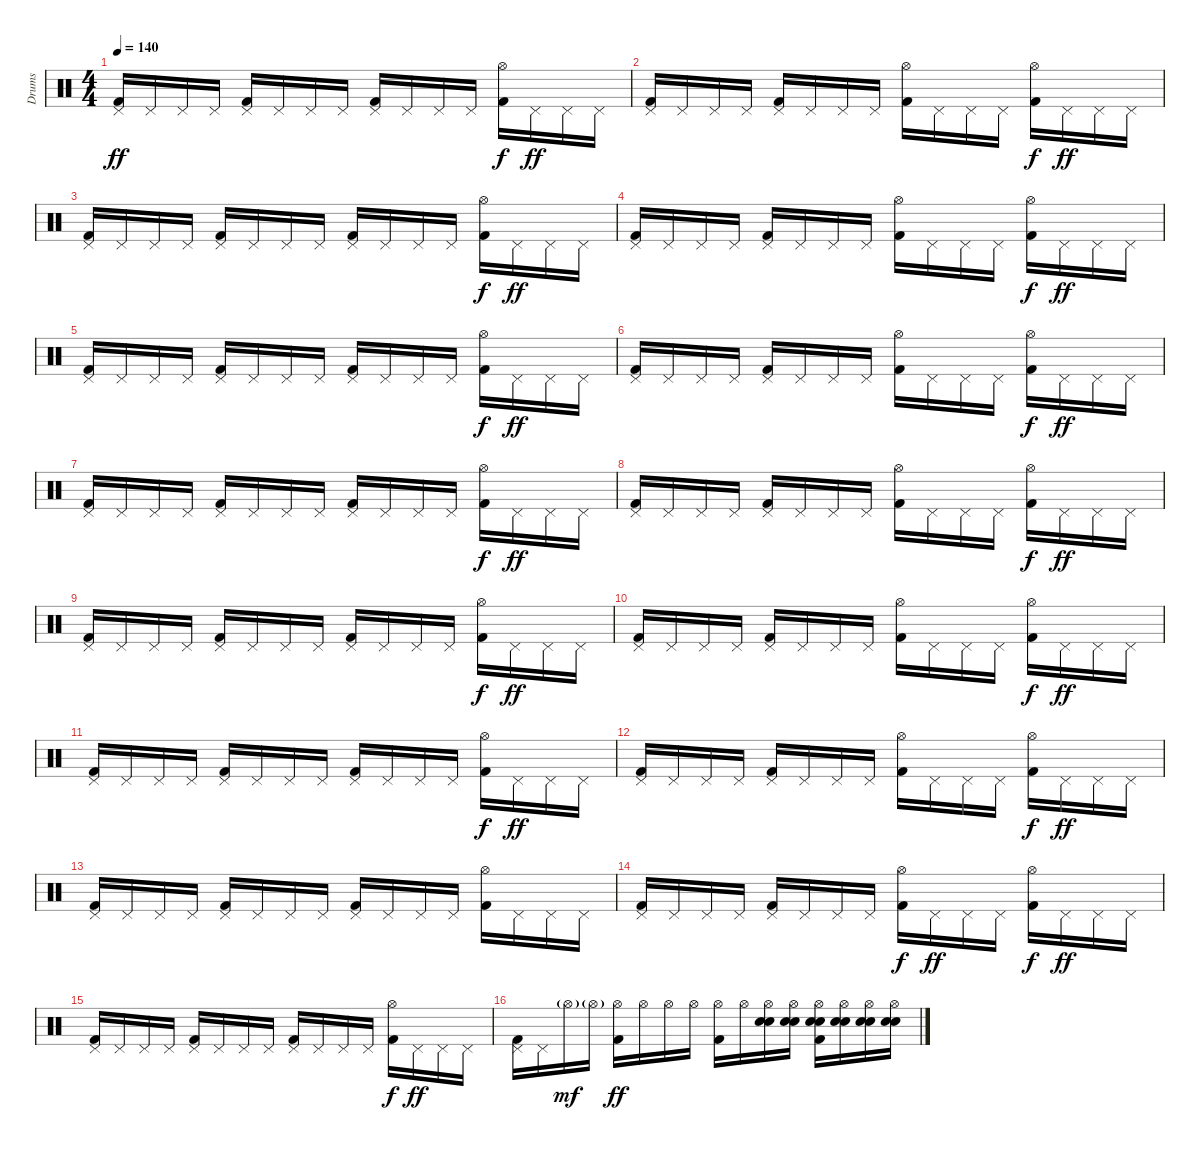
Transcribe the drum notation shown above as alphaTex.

\track ("Drums" "Drums") {instrument percussion}
\staff {score}
\articulation defaults
\ts (4 4)
\tempo 140
\clef neutral
\ks c
("Pedal Hi-Hat (hit)" "Kick (hit) 2").16{dy ff} "Pedal Hi-Hat (hit)".16 "Pedal Hi-Hat (hit)".16 "Pedal Hi-Hat (hit)".16 ("Pedal Hi-Hat (hit)" "Kick (hit) 2").16 "Pedal Hi-Hat (hit)".16 "Pedal Hi-Hat (hit)".16 "Pedal Hi-Hat (hit)".16 ("Pedal Hi-Hat (hit)" "Kick (hit) 2").16 "Pedal Hi-Hat (hit)".16 "Pedal Hi-Hat (hit)".16 "Pedal Hi-Hat (hit)".16 ("Hi-Hat (open)" "Kick (hit) 2").16{dy f} "Pedal Hi-Hat (hit)".16{dy ff} "Pedal Hi-Hat (hit)".16 "Pedal Hi-Hat (hit)".16 |
("Pedal Hi-Hat (hit)" "Kick (hit) 2").16 "Pedal Hi-Hat (hit)".16 "Pedal Hi-Hat (hit)".16 "Pedal Hi-Hat (hit)".16 ("Pedal Hi-Hat (hit)" "Kick (hit) 2").16 "Pedal Hi-Hat (hit)".16 "Pedal Hi-Hat (hit)".16 "Pedal Hi-Hat (hit)".16 ("Hi-Hat (open)" "Kick (hit) 2").16 "Pedal Hi-Hat (hit)".16 "Pedal Hi-Hat (hit)".16 "Pedal Hi-Hat (hit)".16 ("Hi-Hat (open)" "Kick (hit) 2").16{dy f} "Pedal Hi-Hat (hit)".16{dy ff} "Pedal Hi-Hat (hit)".16 "Pedal Hi-Hat (hit)".16 |
("Pedal Hi-Hat (hit)" "Kick (hit) 2").16 "Pedal Hi-Hat (hit)".16 "Pedal Hi-Hat (hit)".16 "Pedal Hi-Hat (hit)".16 ("Pedal Hi-Hat (hit)" "Kick (hit) 2").16 "Pedal Hi-Hat (hit)".16 "Pedal Hi-Hat (hit)".16 "Pedal Hi-Hat (hit)".16 ("Pedal Hi-Hat (hit)" "Kick (hit) 2").16 "Pedal Hi-Hat (hit)".16 "Pedal Hi-Hat (hit)".16 "Pedal Hi-Hat (hit)".16 ("Hi-Hat (open)" "Kick (hit) 2").16{dy f} "Pedal Hi-Hat (hit)".16{dy ff} "Pedal Hi-Hat (hit)".16 "Pedal Hi-Hat (hit)".16 |
("Pedal Hi-Hat (hit)" "Kick (hit) 2").16 "Pedal Hi-Hat (hit)".16 "Pedal Hi-Hat (hit)".16 "Pedal Hi-Hat (hit)".16 ("Pedal Hi-Hat (hit)" "Kick (hit) 2").16 "Pedal Hi-Hat (hit)".16 "Pedal Hi-Hat (hit)".16 "Pedal Hi-Hat (hit)".16 ("Hi-Hat (open)" "Kick (hit) 2").16 "Pedal Hi-Hat (hit)".16 "Pedal Hi-Hat (hit)".16 "Pedal Hi-Hat (hit)".16 ("Hi-Hat (open)" "Kick (hit) 2").16{dy f} "Pedal Hi-Hat (hit)".16{dy ff} "Pedal Hi-Hat (hit)".16 "Pedal Hi-Hat (hit)".16 |
("Pedal Hi-Hat (hit)" "Kick (hit) 2").16 "Pedal Hi-Hat (hit)".16 "Pedal Hi-Hat (hit)".16 "Pedal Hi-Hat (hit)".16 ("Pedal Hi-Hat (hit)" "Kick (hit) 2").16 "Pedal Hi-Hat (hit)".16 "Pedal Hi-Hat (hit)".16 "Pedal Hi-Hat (hit)".16 ("Pedal Hi-Hat (hit)" "Kick (hit) 2").16 "Pedal Hi-Hat (hit)".16 "Pedal Hi-Hat (hit)".16 "Pedal Hi-Hat (hit)".16 ("Hi-Hat (open)" "Kick (hit) 2").16{dy f} "Pedal Hi-Hat (hit)".16{dy ff} "Pedal Hi-Hat (hit)".16 "Pedal Hi-Hat (hit)".16 |
("Pedal Hi-Hat (hit)" "Kick (hit) 2").16 "Pedal Hi-Hat (hit)".16 "Pedal Hi-Hat (hit)".16 "Pedal Hi-Hat (hit)".16 ("Pedal Hi-Hat (hit)" "Kick (hit) 2").16 "Pedal Hi-Hat (hit)".16 "Pedal Hi-Hat (hit)".16 "Pedal Hi-Hat (hit)".16 ("Hi-Hat (open)" "Kick (hit) 2").16 "Pedal Hi-Hat (hit)".16 "Pedal Hi-Hat (hit)".16 "Pedal Hi-Hat (hit)".16 ("Hi-Hat (open)" "Kick (hit) 2").16{dy f} "Pedal Hi-Hat (hit)".16{dy ff} "Pedal Hi-Hat (hit)".16 "Pedal Hi-Hat (hit)".16 |
("Pedal Hi-Hat (hit)" "Kick (hit) 2").16 "Pedal Hi-Hat (hit)".16 "Pedal Hi-Hat (hit)".16 "Pedal Hi-Hat (hit)".16 ("Pedal Hi-Hat (hit)" "Kick (hit) 2").16 "Pedal Hi-Hat (hit)".16 "Pedal Hi-Hat (hit)".16 "Pedal Hi-Hat (hit)".16 ("Pedal Hi-Hat (hit)" "Kick (hit) 2").16 "Pedal Hi-Hat (hit)".16 "Pedal Hi-Hat (hit)".16 "Pedal Hi-Hat (hit)".16 ("Hi-Hat (open)" "Kick (hit) 2").16{dy f} "Pedal Hi-Hat (hit)".16{dy ff} "Pedal Hi-Hat (hit)".16 "Pedal Hi-Hat (hit)".16 |
("Pedal Hi-Hat (hit)" "Kick (hit) 2").16 "Pedal Hi-Hat (hit)".16 "Pedal Hi-Hat (hit)".16 "Pedal Hi-Hat (hit)".16 ("Pedal Hi-Hat (hit)" "Kick (hit) 2").16 "Pedal Hi-Hat (hit)".16 "Pedal Hi-Hat (hit)".16 "Pedal Hi-Hat (hit)".16 ("Hi-Hat (open)" "Kick (hit) 2").16 "Pedal Hi-Hat (hit)".16 "Pedal Hi-Hat (hit)".16 "Pedal Hi-Hat (hit)".16 ("Hi-Hat (open)" "Kick (hit) 2").16{dy f} "Pedal Hi-Hat (hit)".16{dy ff} "Pedal Hi-Hat (hit)".16 "Pedal Hi-Hat (hit)".16 |
("Pedal Hi-Hat (hit)" "Kick (hit) 2").16 "Pedal Hi-Hat (hit)".16 "Pedal Hi-Hat (hit)".16 "Pedal Hi-Hat (hit)".16 ("Pedal Hi-Hat (hit)" "Kick (hit) 2").16 "Pedal Hi-Hat (hit)".16 "Pedal Hi-Hat (hit)".16 "Pedal Hi-Hat (hit)".16 ("Pedal Hi-Hat (hit)" "Kick (hit) 2").16 "Pedal Hi-Hat (hit)".16 "Pedal Hi-Hat (hit)".16 "Pedal Hi-Hat (hit)".16 ("Hi-Hat (open)" "Kick (hit) 2").16{dy f} "Pedal Hi-Hat (hit)".16{dy ff} "Pedal Hi-Hat (hit)".16 "Pedal Hi-Hat (hit)".16 |
("Pedal Hi-Hat (hit)" "Kick (hit) 2").16 "Pedal Hi-Hat (hit)".16 "Pedal Hi-Hat (hit)".16 "Pedal Hi-Hat (hit)".16 ("Pedal Hi-Hat (hit)" "Kick (hit) 2").16 "Pedal Hi-Hat (hit)".16 "Pedal Hi-Hat (hit)".16 "Pedal Hi-Hat (hit)".16 ("Hi-Hat (open)" "Kick (hit) 2").16 "Pedal Hi-Hat (hit)".16 "Pedal Hi-Hat (hit)".16 "Pedal Hi-Hat (hit)".16 ("Hi-Hat (open)" "Kick (hit) 2").16{dy f} "Pedal Hi-Hat (hit)".16{dy ff} "Pedal Hi-Hat (hit)".16 "Pedal Hi-Hat (hit)".16 |
("Pedal Hi-Hat (hit)" "Kick (hit) 2").16 "Pedal Hi-Hat (hit)".16 "Pedal Hi-Hat (hit)".16 "Pedal Hi-Hat (hit)".16 ("Pedal Hi-Hat (hit)" "Kick (hit) 2").16 "Pedal Hi-Hat (hit)".16 "Pedal Hi-Hat (hit)".16 "Pedal Hi-Hat (hit)".16 ("Pedal Hi-Hat (hit)" "Kick (hit) 2").16 "Pedal Hi-Hat (hit)".16 "Pedal Hi-Hat (hit)".16 "Pedal Hi-Hat (hit)".16 ("Hi-Hat (open)" "Kick (hit) 2").16{dy f} "Pedal Hi-Hat (hit)".16{dy ff} "Pedal Hi-Hat (hit)".16 "Pedal Hi-Hat (hit)".16 |
("Pedal Hi-Hat (hit)" "Kick (hit) 2").16 "Pedal Hi-Hat (hit)".16 "Pedal Hi-Hat (hit)".16 "Pedal Hi-Hat (hit)".16 ("Pedal Hi-Hat (hit)" "Kick (hit) 2").16 "Pedal Hi-Hat (hit)".16 "Pedal Hi-Hat (hit)".16 "Pedal Hi-Hat (hit)".16 ("Hi-Hat (open)" "Kick (hit) 2").16 "Pedal Hi-Hat (hit)".16 "Pedal Hi-Hat (hit)".16 "Pedal Hi-Hat (hit)".16 ("Hi-Hat (open)" "Kick (hit) 2").16{dy f} "Pedal Hi-Hat (hit)".16{dy ff} "Pedal Hi-Hat (hit)".16 "Pedal Hi-Hat (hit)".16 |
("Pedal Hi-Hat (hit)" "Kick (hit) 2").16 "Pedal Hi-Hat (hit)".16 "Pedal Hi-Hat (hit)".16 "Pedal Hi-Hat (hit)".16 ("Pedal Hi-Hat (hit)" "Kick (hit) 2").16 "Pedal Hi-Hat (hit)".16 "Pedal Hi-Hat (hit)".16 "Pedal Hi-Hat (hit)".16 ("Pedal Hi-Hat (hit)" "Kick (hit) 2").16 "Pedal Hi-Hat (hit)".16 "Pedal Hi-Hat (hit)".16 "Pedal Hi-Hat (hit)".16 ("Hi-Hat (open)" "Kick (hit) 2").16 "Pedal Hi-Hat (hit)".16 "Pedal Hi-Hat (hit)".16 "Pedal Hi-Hat (hit)".16 |
("Pedal Hi-Hat (hit)" "Kick (hit) 2").16 "Pedal Hi-Hat (hit)".16 "Pedal Hi-Hat (hit)".16 "Pedal Hi-Hat (hit)".16 ("Pedal Hi-Hat (hit)" "Kick (hit) 2").16 "Pedal Hi-Hat (hit)".16 "Pedal Hi-Hat (hit)".16 "Pedal Hi-Hat (hit)".16 ("Hi-Hat (open)" "Kick (hit) 2").16{dy f} "Pedal Hi-Hat (hit)".16{dy ff} "Pedal Hi-Hat (hit)".16 "Pedal Hi-Hat (hit)".16 ("Hi-Hat (open)" "Kick (hit) 2").16{dy f} "Pedal Hi-Hat (hit)".16{dy ff} "Pedal Hi-Hat (hit)".16 "Pedal Hi-Hat (hit)".16 |
("Pedal Hi-Hat (hit)" "Kick (hit) 2").16 "Pedal Hi-Hat (hit)".16 "Pedal Hi-Hat (hit)".16 "Pedal Hi-Hat (hit)".16 ("Pedal Hi-Hat (hit)" "Kick (hit) 2").16 "Pedal Hi-Hat (hit)".16 "Pedal Hi-Hat (hit)".16 "Pedal Hi-Hat (hit)".16 ("Pedal Hi-Hat (hit)" "Kick (hit) 2").16 "Pedal Hi-Hat (hit)".16 "Pedal Hi-Hat (hit)".16 "Pedal Hi-Hat (hit)".16 ("Hi-Hat (open)" "Kick (hit) 2").16{dy f} "Pedal Hi-Hat (hit)".16{dy ff} "Pedal Hi-Hat (hit)".16 "Pedal Hi-Hat (hit)".16 |
("Pedal Hi-Hat (hit)" "Kick (hit) 2").16 "Pedal Hi-Hat (hit)".16 "Hi-Hat (open)"{g}.16{dy mf} "Hi-Hat (open)"{g}.16 ("Hi-Hat (open)" "Kick (hit) 2").16{dy ff} "Hi-Hat (open)".16 "Hi-Hat (open)".16 "Hi-Hat (open)".16 ("Hi-Hat (open)" "Kick (hit) 2").16 "Hi-Hat (open)".16 ("Hi-Hat (open)" "Electric Snare (hit)" "Electric Snare (hit)").16 ("Hi-Hat (open)" "Electric Snare (hit)" "Electric Snare (hit)").16 ("Hi-Hat (open)" "Kick (hit) 2" "Electric Snare (hit)" "Electric Snare (hit)").16 ("Hi-Hat (open)" "Electric Snare (hit)" "Electric Snare (hit)").16 ("Hi-Hat (open)" "Electric Snare (hit)" "Electric Snare (hit)").16 ("Hi-Hat (open)" "Electric Snare (hit)" "Electric Snare (hit)").16
